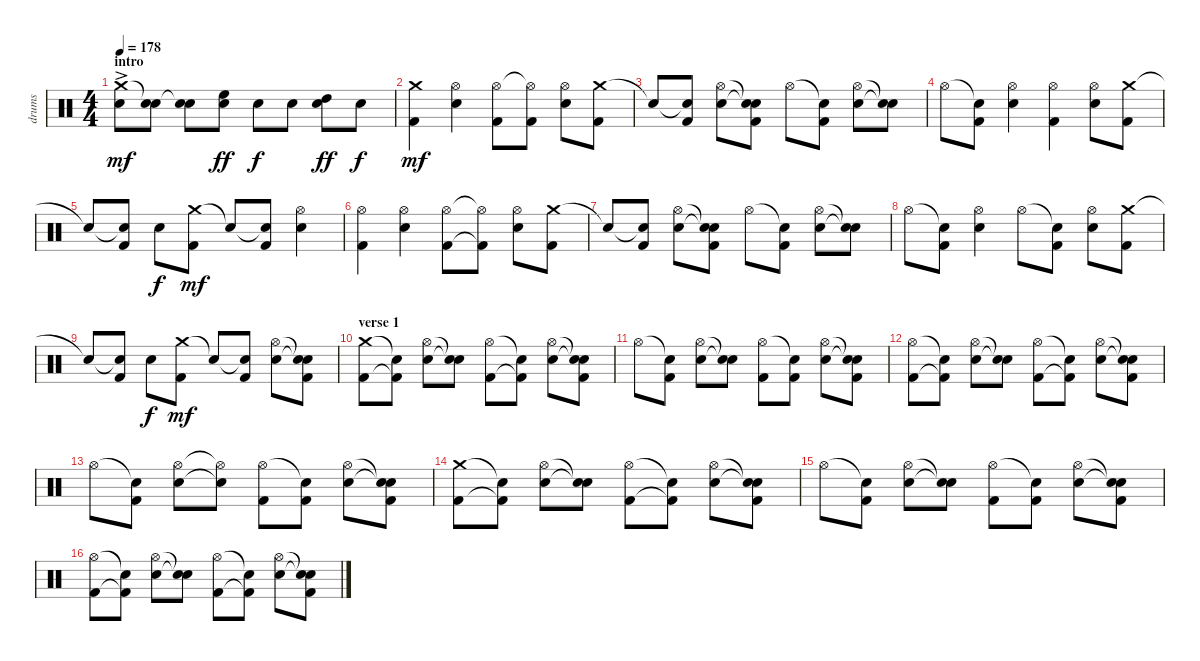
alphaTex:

\track ("drums" "drums") {instrument percussion}
\staff {score}
\articulation defaults
\ts (4 4)
\section ("" "intro")
\tempo 178
\clef neutral
\ks c
("Crash medium (hit)"{ac} "Snare (hit) 2").8{dy mf} ("Snare (hit)"{t} "Snare (hit) 2").8 ("Snare (hit)"{t} "Snare (hit) 2").8 ("Snare (hit) 2" "High Floor Tom (hit)").8{dy ff} "Snare (hit) 2".8{dy f} "Snare (hit) 2".8 ("Snare (hit) 2" "High Tom (hit)").8{dy ff} "Snare (hit) 2".8{dy f} |
\ks aminor
("Crash medium (hit)" "Kick (hit) 2").4{dy mf} ("Hi-Hat (open)" "Snare (hit) 2").4 ("Hi-Hat (open)" "Kick (hit) 2").8 ("Hi-Hat (open)"{t} "Kick (hit) 2").8 ("Hi-Hat (open)" "Snare (hit) 2").8 ("Crash medium (hit)" "Kick (hit) 2").8 |
"Snare (hit)"{t}.8 ("Snare (hit)"{t} "Kick (hit) 2").8 ("Hi-Hat (open)" "Snare (hit) 2").8 ("Snare (hit)"{t} "Snare (hit)"{t} "Kick (hit) 2").8 "Hi-Hat (open)".8 ("Snare (hit)"{t} "Kick (hit) 2").8 ("Hi-Hat (open)" "Snare (hit) 2").8 ("Snare (hit)"{t} "Snare (hit)"{t}).8 |
"Hi-Hat (open)".8 ("Snare (hit)"{t} "Kick (hit) 2").8 ("Hi-Hat (open)" "Snare (hit) 2").4 ("Hi-Hat (open)" "Kick (hit) 2").4 ("Hi-Hat (open)" "Snare (hit) 2").8 ("Crash medium (hit)" "Kick (hit) 2").8 |
"Snare (hit)"{t}.8 ("Snare (hit)"{t} "Kick (hit) 2").8 "Snare (hit) 2".8{dy f} ("Crash medium (hit)" "Kick (hit) 2").8{dy mf} "Snare (hit)"{t}.8 ("Snare (hit)"{t} "Kick (hit) 2").8 ("Hi-Hat (open)" "Snare (hit) 2").4 |
("Hi-Hat (open)" "Kick (hit) 2").4 ("Hi-Hat (open)" "Snare (hit) 2").4 ("Hi-Hat (open)" "Kick (hit) 2").8 ("Hi-Hat (open)"{t} "Kick (hit) 2"{t}).8 ("Hi-Hat (open)" "Snare (hit) 2").8 ("Crash medium (hit)" "Kick (hit) 2").8 |
"Snare (hit)"{t}.8 ("Snare (hit)"{t} "Kick (hit) 2").8 ("Hi-Hat (open)" "Snare (hit) 2").8 ("Snare (hit)"{t} "Snare (hit)"{t} "Kick (hit) 2").8 "Hi-Hat (open)".8 ("Snare (hit)"{t} "Kick (hit) 2").8 ("Hi-Hat (open)" "Snare (hit) 2").8 ("Snare (hit)"{t} "Snare (hit)"{t}).8 |
"Hi-Hat (open)".8 ("Snare (hit)"{t} "Kick (hit) 2").8 ("Hi-Hat (open)" "Snare (hit) 2").4 "Hi-Hat (open)".8 ("Snare (hit)"{t} "Kick (hit) 2").8 ("Hi-Hat (open)" "Snare (hit) 2").8 ("Crash medium (hit)" "Kick (hit) 2").8 |
"Snare (hit)"{t}.8 ("Snare (hit)"{t} "Kick (hit) 2").8 "Snare (hit) 2".8{dy f} ("Crash medium (hit)" "Kick (hit) 2").8{dy mf} "Snare (hit)"{t}.8 ("Snare (hit)"{t} "Kick (hit) 2").8 ("Hi-Hat (open)" "Snare (hit) 2").8 ("Snare (hit)"{t} "Snare (hit)"{t} "Kick (hit) 2").8 |
\section ("" "verse 1")
("Crash medium (hit)" "Kick (hit) 2").8 ("Snare (hit)"{t} "Kick (hit) 2"{t}).8 ("Hi-Hat (open)" "Snare (hit) 2").8 ("Snare (hit)"{t} "Snare (hit)"{t}).8 ("Hi-Hat (open)" "Kick (hit) 2").8 ("Snare (hit)"{t} "Kick (hit) 2"{t}).8 ("Hi-Hat (open)" "Snare (hit) 2").8 ("Snare (hit)"{t} "Snare (hit)"{t} "Kick (hit) 2").8 |
"Hi-Hat (open)".8 ("Snare (hit)"{t} "Kick (hit) 2").8 ("Hi-Hat (open)" "Snare (hit) 2").8 ("Snare (hit)"{t} "Snare (hit)"{t}).8 ("Hi-Hat (open)" "Kick (hit) 2").8 ("Snare (hit)"{t} "Kick (hit) 2").8 ("Hi-Hat (open)" "Snare (hit) 2").8 ("Snare (hit)"{t} "Snare (hit)"{t} "Kick (hit) 2").8 |
("Hi-Hat (open)" "Kick (hit) 2").8 ("Snare (hit)"{t} "Kick (hit) 2"{t}).8 ("Hi-Hat (open)" "Snare (hit) 2").8 ("Snare (hit)"{t} "Snare (hit)"{t}).8 ("Hi-Hat (open)" "Kick (hit) 2").8 ("Snare (hit)"{t} "Kick (hit) 2"{t}).8 ("Hi-Hat (open)" "Snare (hit) 2").8 ("Snare (hit)"{t} "Snare (hit)"{t} "Kick (hit) 2").8 |
"Hi-Hat (open)".8 ("Snare (hit)"{t} "Kick (hit) 2").8 ("Hi-Hat (open)" "Snare (hit) 2").8 ("Hi-Hat (open)"{t} "Snare (hit)"{t}).8 ("Hi-Hat (open)" "Kick (hit) 2").8 ("Snare (hit)"{t} "Kick (hit) 2").8 ("Hi-Hat (open)" "Snare (hit) 2").8 ("Snare (hit)"{t} "Snare (hit)"{t} "Kick (hit) 2").8 |
("Crash medium (hit)" "Kick (hit) 2").8 ("Snare (hit)"{t} "Kick (hit) 2"{t}).8 ("Hi-Hat (open)" "Snare (hit) 2").8 ("Snare (hit)"{t} "Snare (hit)"{t}).8 ("Hi-Hat (open)" "Kick (hit) 2").8 ("Snare (hit)"{t} "Kick (hit) 2"{t}).8 ("Hi-Hat (open)" "Snare (hit) 2").8 ("Snare (hit)"{t} "Snare (hit)"{t} "Kick (hit) 2").8 |
"Hi-Hat (open)".8 ("Snare (hit)"{t} "Kick (hit) 2").8 ("Hi-Hat (open)" "Snare (hit) 2").8 ("Snare (hit)"{t} "Snare (hit)"{t}).8 ("Hi-Hat (open)" "Kick (hit) 2").8 ("Snare (hit)"{t} "Kick (hit) 2").8 ("Hi-Hat (open)" "Snare (hit) 2").8 ("Snare (hit)"{t} "Snare (hit)"{t} "Kick (hit) 2").8 |
("Hi-Hat (open)" "Kick (hit) 2").8 ("Snare (hit)"{t} "Kick (hit) 2"{t}).8 ("Hi-Hat (open)" "Snare (hit) 2").8 ("Snare (hit)"{t} "Snare (hit)"{t}).8 ("Hi-Hat (open)" "Kick (hit) 2").8 ("Snare (hit)"{t} "Kick (hit) 2"{t}).8 ("Hi-Hat (open)" "Snare (hit) 2").8 ("Snare (hit)"{t} "Snare (hit)"{t} "Kick (hit) 2").8
